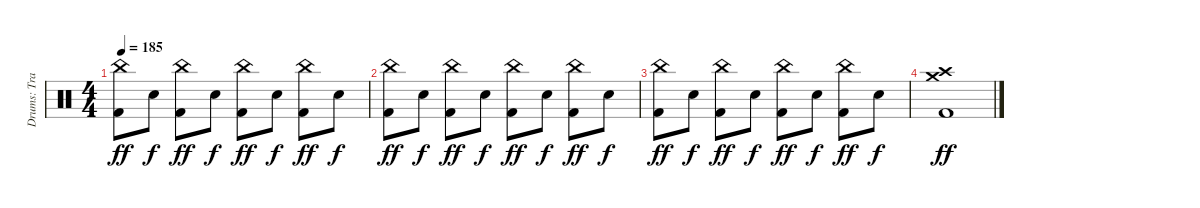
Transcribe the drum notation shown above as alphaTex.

\track ("Drums: Travis Clarke" "Drums: Tra") {instrument percussion}
\staff {score}
\articulation defaults
\ts (4 4)
\tempo 185
\clef neutral
\ks c
("Kick (hit) 2" "China (hit)").8{dy ff} "Snare (hit) 2".8{dy f} ("Kick (hit) 2" "China (hit)").8{dy ff} "Snare (hit) 2".8{dy f} ("Kick (hit) 2" "China (hit)").8{dy ff} "Snare (hit) 2".8{dy f} ("Kick (hit) 2" "China (hit)").8{dy ff} "Snare (hit) 2".8{dy f} |
("Kick (hit) 2" "China (hit)").8{dy ff} "Snare (hit) 2".8{dy f} ("Kick (hit) 2" "China (hit)").8{dy ff} "Snare (hit) 2".8{dy f} ("Kick (hit) 2" "China (hit)").8{dy ff} "Snare (hit) 2".8{dy f} ("Kick (hit) 2" "China (hit)").8{dy ff} "Snare (hit) 2".8{dy f} |
("Kick (hit) 2" "China (hit)").8{dy ff} "Snare (hit) 2".8{dy f} ("Kick (hit) 2" "China (hit)").8{dy ff} "Snare (hit) 2".8{dy f} ("Kick (hit) 2" "China (hit)").8{dy ff} "Snare (hit) 2".8{dy f} ("Kick (hit) 2" "China (hit)").8{dy ff} "Snare (hit) 2".8{dy f} |
("Kick (hit) 2" "Crash high (hit)" "Crash medium (hit)").1{dy ff}
